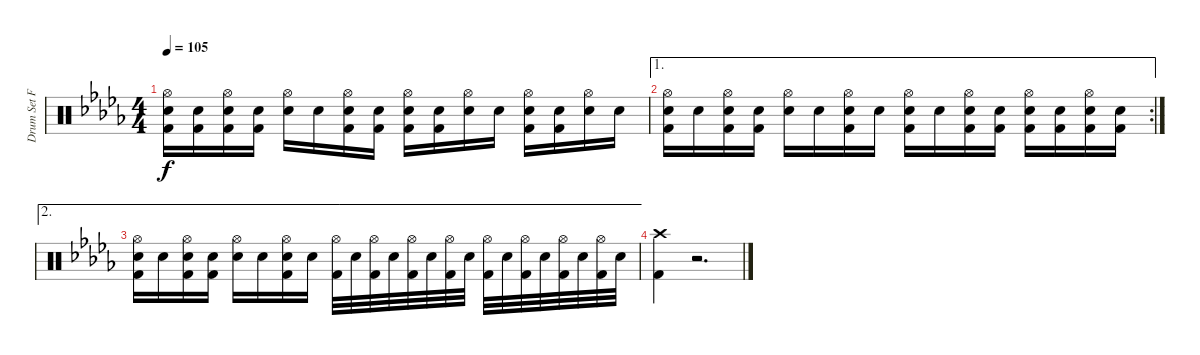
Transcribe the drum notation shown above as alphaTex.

\track ("Drum Set Franz Brachmann" "Drum Set F") {instrument percussion}
\staff {score}
\articulation defaults
\ts (4 4)
\tempo 105
\clef neutral
\ks bbminor
("Hi-Hat (open)" "Electric Snare (hit)" "Kick (hit) 2").16{dy f} ("Electric Snare (hit)" "Kick (hit) 2").16 ("Hi-Hat (open)" "Electric Snare (hit)" "Kick (hit) 2").16 ("Electric Snare (hit)" "Kick (hit) 2").16 ("Hi-Hat (open)" "Electric Snare (hit)").16 "Electric Snare (hit)".16 ("Hi-Hat (open)" "Electric Snare (hit)" "Kick (hit) 2").16 ("Electric Snare (hit)" "Kick (hit) 2").16 ("Hi-Hat (open)" "Electric Snare (hit)" "Kick (hit) 2").16 ("Electric Snare (hit)" "Kick (hit) 2").16 ("Hi-Hat (open)" "Electric Snare (hit)").16 "Electric Snare (hit)".16 ("Hi-Hat (open)" "Electric Snare (hit)" "Kick (hit) 2").16 ("Electric Snare (hit)" "Kick (hit) 2").16 ("Hi-Hat (open)" "Electric Snare (hit)").16 "Electric Snare (hit)".16 |
\ae 1
\rc 2
("Hi-Hat (open)" "Electric Snare (hit)" "Kick (hit) 2").16 "Electric Snare (hit)".16 ("Hi-Hat (open)" "Electric Snare (hit)" "Kick (hit) 2").16 ("Electric Snare (hit)" "Kick (hit) 2").16 ("Hi-Hat (open)" "Electric Snare (hit)").16 "Electric Snare (hit)".16 ("Hi-Hat (open)" "Electric Snare (hit)" "Kick (hit) 2").16 "Electric Snare (hit)".16 ("Hi-Hat (open)" "Electric Snare (hit)" "Kick (hit) 2").16 "Electric Snare (hit)".16 ("Hi-Hat (open)" "Electric Snare (hit)" "Kick (hit) 2").16 ("Electric Snare (hit)" "Kick (hit) 2").16 ("Hi-Hat (open)" "Electric Snare (hit)" "Kick (hit) 2").16 ("Electric Snare (hit)" "Kick (hit) 2").16 ("Hi-Hat (open)" "Electric Snare (hit)" "Kick (hit) 2").16 ("Electric Snare (hit)" "Kick (hit) 2").16 |
\ae 2
("Hi-Hat (open)" "Electric Snare (hit)" "Kick (hit) 2").16 "Electric Snare (hit)".16 ("Hi-Hat (open)" "Electric Snare (hit)" "Kick (hit) 2").16 ("Electric Snare (hit)" "Kick (hit) 2").16 ("Hi-Hat (open)" "Electric Snare (hit)").16 "Electric Snare (hit)".16 ("Hi-Hat (open)" "Electric Snare (hit)" "Kick (hit) 2").16 "Electric Snare (hit)".16 ("Hi-Hat (open)" "Kick (hit) 2").32 "Electric Snare (hit)".32 ("Hi-Hat (open)" "Kick (hit) 2").32 "Electric Snare (hit)".32 ("Hi-Hat (open)" "Kick (hit) 2").32 "Electric Snare (hit)".32 ("Hi-Hat (open)" "Kick (hit) 2").32 "Electric Snare (hit)".32 ("Hi-Hat (open)" "Kick (hit) 2").32 "Electric Snare (hit)".32 ("Hi-Hat (open)" "Kick (hit) 2").32 "Electric Snare (hit)".32 ("Hi-Hat (open)" "Kick (hit) 2").32 "Electric Snare (hit)".32 ("Hi-Hat (open)" "Kick (hit) 2").32 "Electric Snare (hit)".32 |
("Crash high (hit)" "Kick (hit) 2").4 r.2{d}
